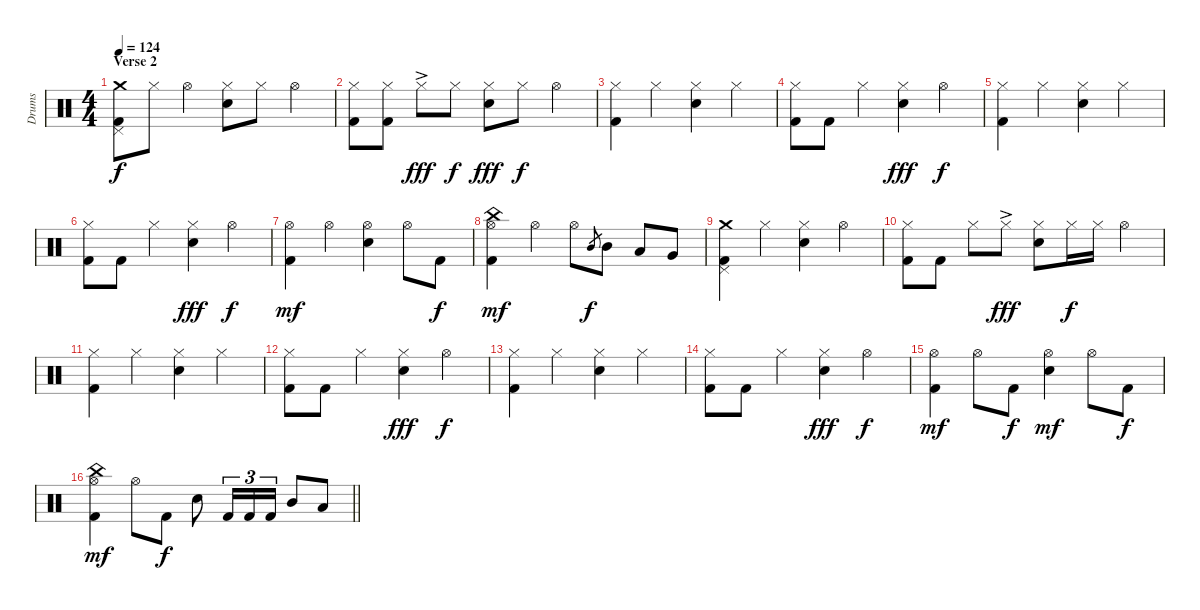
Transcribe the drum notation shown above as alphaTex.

\track ("Drums" "Drums") {instrument percussion}
\staff {score}
\articulation defaults
\ts (4 4)
\section ("" "Verse 2")
\tempo 124
\clef neutral
\ks c
("Crash medium (hit)" "Pedal Hi-Hat (hit)" "Kick (hit) 2").8{dy f} "Hi-Hat (closed)".8 "Hi-Hat (open)".4 ("Hi-Hat (closed)" "Electric Snare (hit)").8 "Hi-Hat (closed)".8 "Hi-Hat (open)".4 |
("Hi-Hat (closed)" "Kick (hit) 2").8 ("Hi-Hat (closed)" "Kick (hit) 2").8 "Hi-Hat (closed)"{ac}.8{dy fff} "Hi-Hat (closed)".8{dy f} ("Hi-Hat (closed)" "Electric Snare (hit)").8{dy fff} "Hi-Hat (closed)".8{dy f} "Hi-Hat (open)".4 |
("Hi-Hat (closed)" "Kick (hit) 2").4 "Hi-Hat (closed)".4 ("Hi-Hat (closed)" "Electric Snare (hit)").4 "Hi-Hat (closed)".4 |
("Hi-Hat (closed)" "Kick (hit) 2").8 "Kick (hit) 2".8 "Hi-Hat (closed)".4 ("Hi-Hat (closed)" "Electric Snare (hit)").4{dy fff} "Hi-Hat (open)".4{dy f} |
("Hi-Hat (closed)" "Kick (hit) 2").4 "Hi-Hat (closed)".4 ("Hi-Hat (closed)" "Electric Snare (hit)").4 "Hi-Hat (closed)".4 |
("Hi-Hat (closed)" "Kick (hit) 2").8 "Kick (hit) 2".8 "Hi-Hat (closed)".4 ("Hi-Hat (closed)" "Electric Snare (hit)").4{dy fff} "Hi-Hat (open)".4{dy f} |
("Hi-Hat (open)" "Kick (hit) 2").4{dy mf} "Hi-Hat (open)".4 ("Hi-Hat (open)" "Electric Snare (hit)").4 "Hi-Hat (open)".8 "Kick (hit) 2".8{dy f} |
("China (hit)" "Hi-Hat (open)" "Kick (hit) 2").4{dy mf} "Hi-Hat (open)".4 "Hi-Hat (open)".8 "Mid Tom (hit)".8{gr dy f} "Mid Tom (hit)".8 "Low Tom (hit)".8 "Very Low Tom (hit)".8 |
("Crash medium (hit)" "Pedal Hi-Hat (hit)" "Kick (hit) 2").4 "Hi-Hat (closed)".4 ("Hi-Hat (closed)" "Electric Snare (hit)").4 "Hi-Hat (open)".4 |
("Hi-Hat (closed)" "Kick (hit) 2").8 "Kick (hit) 2".8 "Hi-Hat (closed)".8 "Hi-Hat (closed)"{ac}.8{dy fff} ("Hi-Hat (closed)" "Electric Snare (hit)").8 "Hi-Hat (closed)".16{dy f} "Hi-Hat (closed)".16 "Hi-Hat (open)".4 |
("Hi-Hat (closed)" "Kick (hit) 2").4 "Hi-Hat (closed)".4 ("Hi-Hat (closed)" "Electric Snare (hit)").4 "Hi-Hat (closed)".4 |
("Hi-Hat (closed)" "Kick (hit) 2").8 "Kick (hit) 2".8 "Hi-Hat (closed)".4 ("Hi-Hat (closed)" "Electric Snare (hit)").4{dy fff} "Hi-Hat (open)".4{dy f} |
("Hi-Hat (closed)" "Kick (hit) 2").4 "Hi-Hat (closed)".4 ("Hi-Hat (closed)" "Electric Snare (hit)").4 "Hi-Hat (closed)".4 |
("Hi-Hat (closed)" "Kick (hit) 2").8 "Kick (hit) 2".8 "Hi-Hat (closed)".4 ("Hi-Hat (closed)" "Electric Snare (hit)").4{dy fff} "Hi-Hat (open)".4{dy f} |
("Hi-Hat (open)" "Kick (hit) 2").4{dy mf} "Hi-Hat (open)".8 "Kick (hit) 2".8{dy f} ("Hi-Hat (open)" "Electric Snare (hit)").4{dy mf} "Hi-Hat (open)".8 "Kick (hit) 2".8{dy f} |
\barLineRight lightlight
("China (hit)" "Hi-Hat (open)" "Kick (hit) 2").4{dy mf} "Hi-Hat (open)".8 "Kick (hit) 2".8{dy f} "Electric Snare (hit)".8 "Kick (hit) 2".16{tu (3 2)} "Kick (hit) 2".16{tu (3 2)} "Kick (hit) 2".16{tu (3 2)} "Mid Tom (hit)".8 "Low Tom (hit)".8
